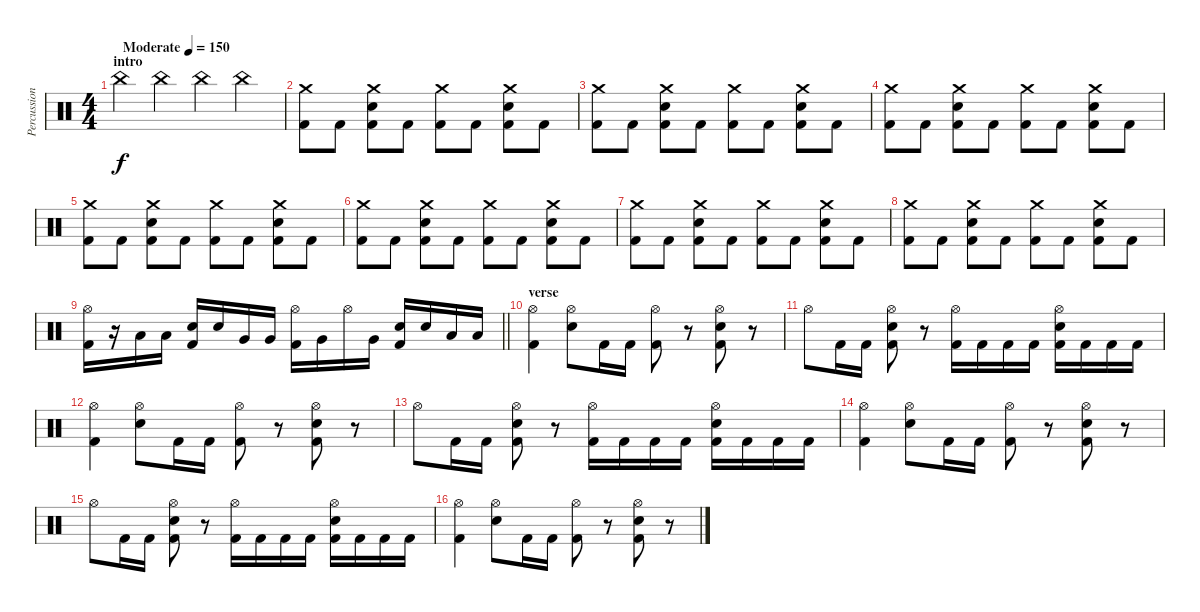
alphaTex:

\track ("Percussion" "Percussion") {instrument percussion}
\staff {score}
\articulation defaults
\ts (4 4)
\section ("" "intro")
\tempo (150 "Moderate")
\clef neutral
\ks c "China (hit)".4{dy f} "China (hit)".4 "China (hit)".4 "China (hit)".4
|
("Crash medium (hit)" "Kick (hit) 2").8 "Kick (hit) 2".8 ("Crash medium (hit)" "Snare (hit) 2" "Kick (hit) 2").8 "Kick (hit) 2".8 ("Crash medium (hit)" "Kick (hit) 2").8 "Kick (hit) 2".8 ("Crash medium (hit)" "Snare (hit) 2" "Kick (hit) 2").8 "Kick (hit) 2".8 |
("Crash medium (hit)" "Kick (hit) 2").8 "Kick (hit) 2".8 ("Crash medium (hit)" "Snare (hit) 2" "Kick (hit) 2").8 "Kick (hit) 2".8 ("Crash medium (hit)" "Kick (hit) 2").8 "Kick (hit) 2".8 ("Crash medium (hit)" "Snare (hit) 2" "Kick (hit) 2").8 "Kick (hit) 2".8 |
("Crash medium (hit)" "Kick (hit) 2").8 "Kick (hit) 2".8 ("Crash medium (hit)" "Snare (hit) 2" "Kick (hit) 2").8 "Kick (hit) 2".8 ("Crash medium (hit)" "Kick (hit) 2").8 "Kick (hit) 2".8 ("Crash medium (hit)" "Snare (hit) 2" "Kick (hit) 2").8 "Kick (hit) 2".8 |
("Crash medium (hit)" "Kick (hit) 2").8 "Kick (hit) 2".8 ("Crash medium (hit)" "Snare (hit) 2" "Kick (hit) 2").8 "Kick (hit) 2".8 ("Crash medium (hit)" "Kick (hit) 2").8 "Kick (hit) 2".8 ("Crash medium (hit)" "Snare (hit) 2" "Kick (hit) 2").8 "Kick (hit) 2".8 |
("Crash medium (hit)" "Kick (hit) 2").8 "Kick (hit) 2".8 ("Crash medium (hit)" "Snare (hit) 2" "Kick (hit) 2").8 "Kick (hit) 2".8 ("Crash medium (hit)" "Kick (hit) 2").8 "Kick (hit) 2".8 ("Crash medium (hit)" "Snare (hit) 2" "Kick (hit) 2").8 "Kick (hit) 2".8 |
("Crash medium (hit)" "Kick (hit) 2").8 "Kick (hit) 2".8 ("Crash medium (hit)" "Snare (hit) 2" "Kick (hit) 2").8 "Kick (hit) 2".8 ("Crash medium (hit)" "Kick (hit) 2").8 "Kick (hit) 2".8 ("Crash medium (hit)" "Snare (hit) 2" "Kick (hit) 2").8 "Kick (hit) 2".8 |
("Crash medium (hit)" "Kick (hit) 2").8 "Kick (hit) 2".8 ("Crash medium (hit)" "Snare (hit) 2" "Kick (hit) 2").8 "Kick (hit) 2".8 ("Crash medium (hit)" "Kick (hit) 2").8 "Kick (hit) 2".8 ("Crash medium (hit)" "Snare (hit) 2" "Kick (hit) 2").8 "Kick (hit) 2".8 |
\barLineRight lightlight
("Hi-Hat (open)" "Kick (hit) 2").16 r.16 "Low Tom (hit)".16 "Low Tom (hit)".16 ("Snare (hit) 2" "Kick (hit) 2").16 "Snare (hit) 2".16 "Very Low Tom (hit)".16 "Very Low Tom (hit)".16 ("Hi-Hat (open)" "Kick (hit) 2").16 "Very Low Tom (hit)".16 "Hi-Hat (open)".16 "Very Low Tom (hit)".16 ("Snare (hit) 2" "Kick (hit) 2").16 "Snare (hit) 2".16 "Low Floor Tom (hit)".16 "Low Floor Tom (hit)".16 |
\section ("" "verse")
("Hi-Hat (open)" "Kick (hit) 2").4 ("Hi-Hat (open)" "Snare (hit) 2").8 "Kick (hit) 2".16 "Kick (hit) 2".16 ("Hi-Hat (open)" "Kick (hit) 2").8 r.8 ("Hi-Hat (open)" "Snare (hit) 2" "Kick (hit) 2").8 r.8 |
"Hi-Hat (open)".8 "Kick (hit) 2".16 "Kick (hit) 2".16 ("Hi-Hat (open)" "Snare (hit) 2" "Kick (hit) 2").8 r.8 ("Hi-Hat (open)" "Kick (hit) 2").16 "Kick (hit) 2".16 "Kick (hit) 2".16 "Kick (hit) 2".16 ("Hi-Hat (open)" "Snare (hit) 2" "Kick (hit) 2").16 "Kick (hit) 2".16 "Kick (hit) 2".16 "Kick (hit) 2".16 |
("Hi-Hat (open)" "Kick (hit) 2").4 ("Hi-Hat (open)" "Snare (hit) 2").8 "Kick (hit) 2".16 "Kick (hit) 2".16 ("Hi-Hat (open)" "Kick (hit) 2").8 r.8 ("Hi-Hat (open)" "Snare (hit) 2" "Kick (hit) 2").8 r.8 |
"Hi-Hat (open)".8 "Kick (hit) 2".16 "Kick (hit) 2".16 ("Hi-Hat (open)" "Snare (hit) 2" "Kick (hit) 2").8 r.8 ("Hi-Hat (open)" "Kick (hit) 2").16 "Kick (hit) 2".16 "Kick (hit) 2".16 "Kick (hit) 2".16 ("Hi-Hat (open)" "Snare (hit) 2" "Kick (hit) 2").16 "Kick (hit) 2".16 "Kick (hit) 2".16 "Kick (hit) 2".16 |
("Hi-Hat (open)" "Kick (hit) 2").4 ("Hi-Hat (open)" "Snare (hit) 2").8 "Kick (hit) 2".16 "Kick (hit) 2".16 ("Hi-Hat (open)" "Kick (hit) 2").8 r.8 ("Hi-Hat (open)" "Snare (hit) 2" "Kick (hit) 2").8 r.8 |
"Hi-Hat (open)".8 "Kick (hit) 2".16 "Kick (hit) 2".16 ("Hi-Hat (open)" "Snare (hit) 2" "Kick (hit) 2").8 r.8 ("Hi-Hat (open)" "Kick (hit) 2").16 "Kick (hit) 2".16 "Kick (hit) 2".16 "Kick (hit) 2".16 ("Hi-Hat (open)" "Snare (hit) 2" "Kick (hit) 2").16 "Kick (hit) 2".16 "Kick (hit) 2".16 "Kick (hit) 2".16 |
("Hi-Hat (open)" "Kick (hit) 2").4 ("Hi-Hat (open)" "Snare (hit) 2").8 "Kick (hit) 2".16 "Kick (hit) 2".16 ("Hi-Hat (open)" "Kick (hit) 2").8 r.8 ("Hi-Hat (open)" "Snare (hit) 2" "Kick (hit) 2").8 r.8
